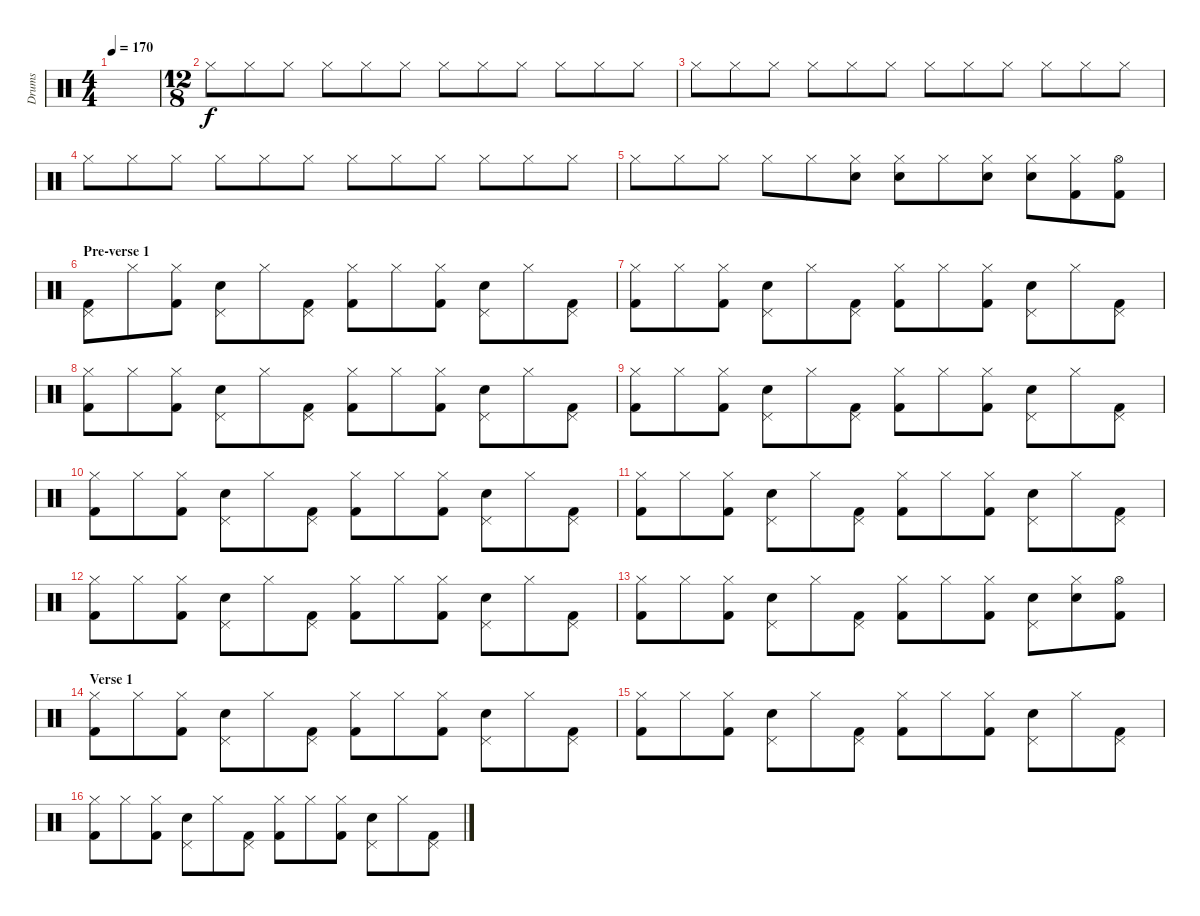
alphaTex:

\track ("Drums" "Drums") {instrument percussion}
\staff {score}
\articulation defaults
\ts (4 4)
\tempo 170
\clef neutral
\ks c
|
\ts (12 8)
"Hi-Hat (closed)".8 "Hi-Hat (closed)".8 "Hi-Hat (closed)".8 "Hi-Hat (closed)".8 "Hi-Hat (closed)".8 "Hi-Hat (closed)".8 "Hi-Hat (closed)".8 "Hi-Hat (closed)".8 "Hi-Hat (closed)".8 "Hi-Hat (closed)".8 "Hi-Hat (closed)".8 "Hi-Hat (closed)".8 |
"Hi-Hat (closed)".8 "Hi-Hat (closed)".8 "Hi-Hat (closed)".8 "Hi-Hat (closed)".8 "Hi-Hat (closed)".8 "Hi-Hat (closed)".8 "Hi-Hat (closed)".8 "Hi-Hat (closed)".8 "Hi-Hat (closed)".8 "Hi-Hat (closed)".8 "Hi-Hat (closed)".8 "Hi-Hat (closed)".8 |
"Hi-Hat (closed)".8 "Hi-Hat (closed)".8 "Hi-Hat (closed)".8 "Hi-Hat (closed)".8 "Hi-Hat (closed)".8 "Hi-Hat (closed)".8 "Hi-Hat (closed)".8 "Hi-Hat (closed)".8 "Hi-Hat (closed)".8 "Hi-Hat (closed)".8 "Hi-Hat (closed)".8 "Hi-Hat (closed)".8 |
"Hi-Hat (closed)".8 "Hi-Hat (closed)".8 "Hi-Hat (closed)".8 "Hi-Hat (closed)".8 "Hi-Hat (closed)".8 ("Snare (hit) 2" "Hi-Hat (closed)").8 ("Snare (hit) 2" "Hi-Hat (closed)").8 "Hi-Hat (closed)".8 ("Snare (hit) 2" "Hi-Hat (closed)").8 ("Snare (hit) 2" "Hi-Hat (closed)").8 ("Kick (hit) 2" "Hi-Hat (closed)").8 ("Kick (hit) 2" "Hi-Hat (open)").8 |
\section ("" "Pre-verse 1")
("Kick (hit) 2" "Pedal Hi-Hat (hit)").8 "Hi-Hat (closed)".8 ("Kick (hit) 2" "Hi-Hat (closed)").8 ("Snare (hit) 2" "Pedal Hi-Hat (hit)").8 "Hi-Hat (closed)".8 ("Kick (hit) 2" "Pedal Hi-Hat (hit)").8 ("Kick (hit) 2" "Hi-Hat (closed)").8 "Hi-Hat (closed)".8 ("Kick (hit) 2" "Hi-Hat (closed)").8 ("Snare (hit) 2" "Pedal Hi-Hat (hit)").8 "Hi-Hat (closed)".8 ("Kick (hit) 2" "Pedal Hi-Hat (hit)").8 |
("Kick (hit) 2" "Hi-Hat (closed)").8 "Hi-Hat (closed)".8 ("Kick (hit) 2" "Hi-Hat (closed)").8 ("Snare (hit) 2" "Pedal Hi-Hat (hit)").8 "Hi-Hat (closed)".8 ("Kick (hit) 2" "Pedal Hi-Hat (hit)").8 ("Kick (hit) 2" "Hi-Hat (closed)").8 "Hi-Hat (closed)".8 ("Kick (hit) 2" "Hi-Hat (closed)").8 ("Snare (hit) 2" "Pedal Hi-Hat (hit)").8 "Hi-Hat (closed)".8 ("Kick (hit) 2" "Pedal Hi-Hat (hit)").8 |
("Kick (hit) 2" "Hi-Hat (closed)").8 "Hi-Hat (closed)".8 ("Kick (hit) 2" "Hi-Hat (closed)").8 ("Snare (hit) 2" "Pedal Hi-Hat (hit)").8 "Hi-Hat (closed)".8 ("Kick (hit) 2" "Pedal Hi-Hat (hit)").8 ("Kick (hit) 2" "Hi-Hat (closed)").8 "Hi-Hat (closed)".8 ("Kick (hit) 2" "Hi-Hat (closed)").8 ("Snare (hit) 2" "Pedal Hi-Hat (hit)").8 "Hi-Hat (closed)".8 ("Kick (hit) 2" "Pedal Hi-Hat (hit)").8 |
("Kick (hit) 2" "Hi-Hat (closed)").8 "Hi-Hat (closed)".8 ("Kick (hit) 2" "Hi-Hat (closed)").8 ("Snare (hit) 2" "Pedal Hi-Hat (hit)").8 "Hi-Hat (closed)".8 ("Kick (hit) 2" "Pedal Hi-Hat (hit)").8 ("Kick (hit) 2" "Hi-Hat (closed)").8 "Hi-Hat (closed)".8 ("Kick (hit) 2" "Hi-Hat (closed)").8 ("Snare (hit) 2" "Pedal Hi-Hat (hit)").8 "Hi-Hat (closed)".8 ("Kick (hit) 2" "Pedal Hi-Hat (hit)").8 |
("Kick (hit) 2" "Hi-Hat (closed)").8 "Hi-Hat (closed)".8 ("Kick (hit) 2" "Hi-Hat (closed)").8 ("Snare (hit) 2" "Pedal Hi-Hat (hit)").8 "Hi-Hat (closed)".8 ("Kick (hit) 2" "Pedal Hi-Hat (hit)").8 ("Kick (hit) 2" "Hi-Hat (closed)").8 "Hi-Hat (closed)".8 ("Kick (hit) 2" "Hi-Hat (closed)").8 ("Snare (hit) 2" "Pedal Hi-Hat (hit)").8 "Hi-Hat (closed)".8 ("Kick (hit) 2" "Pedal Hi-Hat (hit)").8 |
("Kick (hit) 2" "Hi-Hat (closed)").8 "Hi-Hat (closed)".8 ("Kick (hit) 2" "Hi-Hat (closed)").8 ("Snare (hit) 2" "Pedal Hi-Hat (hit)").8 "Hi-Hat (closed)".8 ("Kick (hit) 2" "Pedal Hi-Hat (hit)").8 ("Kick (hit) 2" "Hi-Hat (closed)").8 "Hi-Hat (closed)".8 ("Kick (hit) 2" "Hi-Hat (closed)").8 ("Snare (hit) 2" "Pedal Hi-Hat (hit)").8 "Hi-Hat (closed)".8 ("Kick (hit) 2" "Pedal Hi-Hat (hit)").8 |
("Kick (hit) 2" "Hi-Hat (closed)").8 "Hi-Hat (closed)".8 ("Kick (hit) 2" "Hi-Hat (closed)").8 ("Snare (hit) 2" "Pedal Hi-Hat (hit)").8 "Hi-Hat (closed)".8 ("Kick (hit) 2" "Pedal Hi-Hat (hit)").8 ("Kick (hit) 2" "Hi-Hat (closed)").8 "Hi-Hat (closed)".8 ("Kick (hit) 2" "Hi-Hat (closed)").8 ("Snare (hit) 2" "Pedal Hi-Hat (hit)").8 "Hi-Hat (closed)".8 ("Kick (hit) 2" "Pedal Hi-Hat (hit)").8 |
("Kick (hit) 2" "Hi-Hat (closed)").8 "Hi-Hat (closed)".8 ("Kick (hit) 2" "Hi-Hat (closed)").8 ("Snare (hit) 2" "Pedal Hi-Hat (hit)").8 "Hi-Hat (closed)".8 ("Kick (hit) 2" "Pedal Hi-Hat (hit)").8 ("Kick (hit) 2" "Hi-Hat (closed)").8 "Hi-Hat (closed)".8 ("Kick (hit) 2" "Hi-Hat (closed)").8 ("Snare (hit) 2" "Pedal Hi-Hat (hit)").8 ("Snare (hit) 2" "Hi-Hat (closed)").8 ("Kick (hit) 2" "Hi-Hat (open)").8 |
\section ("" "Verse 1")
("Kick (hit) 2" "Hi-Hat (closed)").8 "Hi-Hat (closed)".8 ("Kick (hit) 2" "Hi-Hat (closed)").8 ("Snare (hit) 2" "Pedal Hi-Hat (hit)").8 "Hi-Hat (closed)".8 ("Kick (hit) 2" "Pedal Hi-Hat (hit)").8 ("Kick (hit) 2" "Hi-Hat (closed)").8 "Hi-Hat (closed)".8 ("Kick (hit) 2" "Hi-Hat (closed)").8 ("Snare (hit) 2" "Pedal Hi-Hat (hit)").8 "Hi-Hat (closed)".8 ("Kick (hit) 2" "Pedal Hi-Hat (hit)").8 |
("Kick (hit) 2" "Hi-Hat (closed)").8 "Hi-Hat (closed)".8 ("Kick (hit) 2" "Hi-Hat (closed)").8 ("Snare (hit) 2" "Pedal Hi-Hat (hit)").8 "Hi-Hat (closed)".8 ("Kick (hit) 2" "Pedal Hi-Hat (hit)").8 ("Kick (hit) 2" "Hi-Hat (closed)").8 "Hi-Hat (closed)".8 ("Kick (hit) 2" "Hi-Hat (closed)").8 ("Snare (hit) 2" "Pedal Hi-Hat (hit)").8 "Hi-Hat (closed)".8 ("Kick (hit) 2" "Pedal Hi-Hat (hit)").8 |
("Kick (hit) 2" "Hi-Hat (closed)").8 "Hi-Hat (closed)".8 ("Kick (hit) 2" "Hi-Hat (closed)").8 ("Snare (hit) 2" "Pedal Hi-Hat (hit)").8 "Hi-Hat (closed)".8 ("Kick (hit) 2" "Pedal Hi-Hat (hit)").8 ("Kick (hit) 2" "Hi-Hat (closed)").8 "Hi-Hat (closed)".8 ("Kick (hit) 2" "Hi-Hat (closed)").8 ("Snare (hit) 2" "Pedal Hi-Hat (hit)").8 "Hi-Hat (closed)".8 ("Kick (hit) 2" "Pedal Hi-Hat (hit)").8
